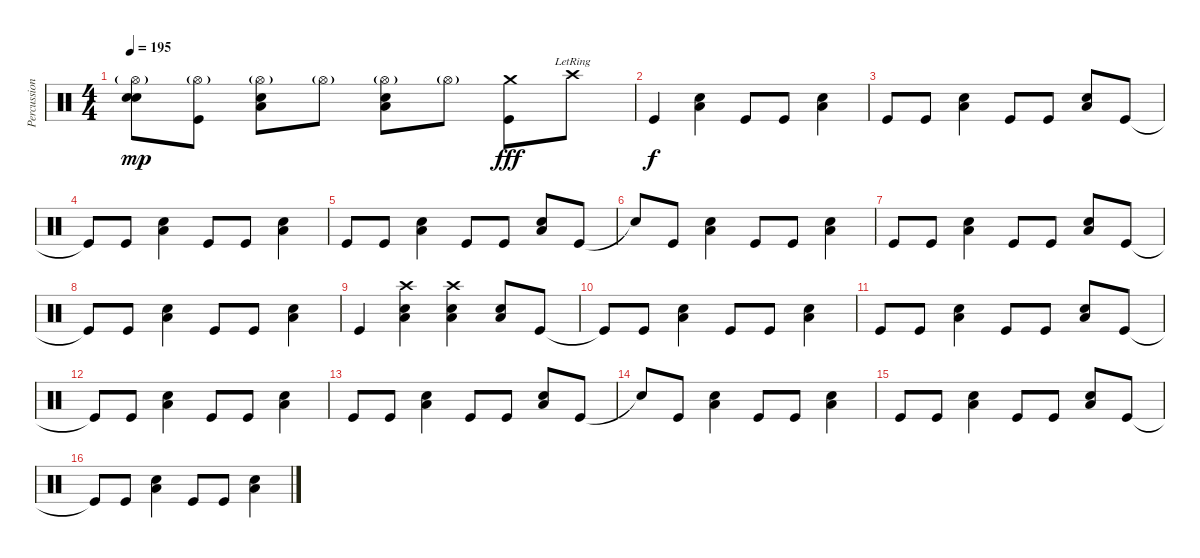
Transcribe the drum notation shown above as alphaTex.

\track ("Percussion" "Percussion") {instrument percussion}
\staff {score}
\articulation defaults
\ts (4 4)
\tempo 195
\clef neutral
\ks c
("Hi-Hat (open)"{g} "Snare (hit)"{t} "Snare (hit)"{t}).8{dy mp} ("Hi-Hat (open)"{g} "Kick (hit)").8 ("Hi-Hat (open)"{g} "Low Tom (hit)" "Snare (hit) 2").8 "Hi-Hat (open)"{g}.8 ("Hi-Hat (open)"{g} "Low Tom (hit)" "Snare (hit) 2").8 "Hi-Hat (open)"{g}.8 ("Crash medium (hit)" "Kick (hit)").8{dy fff} "Crash high (hit)"{lr}.8 |
"Kick (hit)".4{dy f} ("Low Tom (hit)" "Snare (hit) 2").4 "Kick (hit)".8 "Kick (hit)".8 ("Low Tom (hit)" "Snare (hit) 2").4 |
"Kick (hit)".8 "Kick (hit)".8 ("Low Tom (hit)" "Snare (hit) 2").4 "Kick (hit)".8 "Kick (hit)".8 ("Low Tom (hit)" "Snare (hit) 2").8 "Kick (hit)".8 |
"Kick (hit)"{t}.8 "Kick (hit)".8 ("Low Tom (hit)" "Snare (hit) 2").4 "Kick (hit)".8 "Kick (hit)".8 ("Low Tom (hit)" "Snare (hit) 2").4 |
"Kick (hit)".8 "Kick (hit)".8 ("Low Tom (hit)" "Snare (hit) 2").4 "Kick (hit)".8 "Kick (hit)".8 ("Low Tom (hit)" "Snare (hit) 2").8 "Kick (hit)".8 |
"Snare (hit)"{t}.8 "Kick (hit)".8 ("Low Tom (hit)" "Snare (hit) 2").4 "Kick (hit)".8 "Kick (hit)".8 ("Low Tom (hit)" "Snare (hit) 2").4 |
"Kick (hit)".8 "Kick (hit)".8 ("Low Tom (hit)" "Snare (hit) 2").4 "Kick (hit)".8 "Kick (hit)".8 ("Low Tom (hit)" "Snare (hit) 2").8 "Kick (hit)".8 |
"Kick (hit)"{t}.8 "Kick (hit)".8 ("Low Tom (hit)" "Snare (hit) 2").4 "Kick (hit)".8 "Kick (hit)".8 ("Low Tom (hit)" "Snare (hit) 2").4 |
"Kick (hit)".4 ("Crash high (hit)" "Low Tom (hit)" "Snare (hit) 2").4 ("Crash high (hit)" "Low Tom (hit)" "Snare (hit) 2").4 ("Low Tom (hit)" "Snare (hit) 2").8 "Kick (hit)".8 |
"Kick (hit)"{t}.8 "Kick (hit)".8 ("Low Tom (hit)" "Snare (hit) 2").4 "Kick (hit)".8 "Kick (hit)".8 ("Low Tom (hit)" "Snare (hit) 2").4 |
"Kick (hit)".8 "Kick (hit)".8 ("Low Tom (hit)" "Snare (hit) 2").4 "Kick (hit)".8 "Kick (hit)".8 ("Low Tom (hit)" "Snare (hit) 2").8 "Kick (hit)".8 |
"Kick (hit)"{t}.8 "Kick (hit)".8 ("Low Tom (hit)" "Snare (hit) 2").4 "Kick (hit)".8 "Kick (hit)".8 ("Low Tom (hit)" "Snare (hit) 2").4 |
"Kick (hit)".8 "Kick (hit)".8 ("Low Tom (hit)" "Snare (hit) 2").4 "Kick (hit)".8 "Kick (hit)".8 ("Low Tom (hit)" "Snare (hit) 2").8 "Kick (hit)".8 |
"Snare (hit)"{t}.8 "Kick (hit)".8 ("Low Tom (hit)" "Snare (hit) 2").4 "Kick (hit)".8 "Kick (hit)".8 ("Low Tom (hit)" "Snare (hit) 2").4 |
"Kick (hit)".8 "Kick (hit)".8 ("Low Tom (hit)" "Snare (hit) 2").4 "Kick (hit)".8 "Kick (hit)".8 ("Low Tom (hit)" "Snare (hit) 2").8 "Kick (hit)".8 |
"Kick (hit)"{t}.8 "Kick (hit)".8 ("Low Tom (hit)" "Snare (hit) 2").4 "Kick (hit)".8 "Kick (hit)".8 ("Low Tom (hit)" "Snare (hit) 2").4
